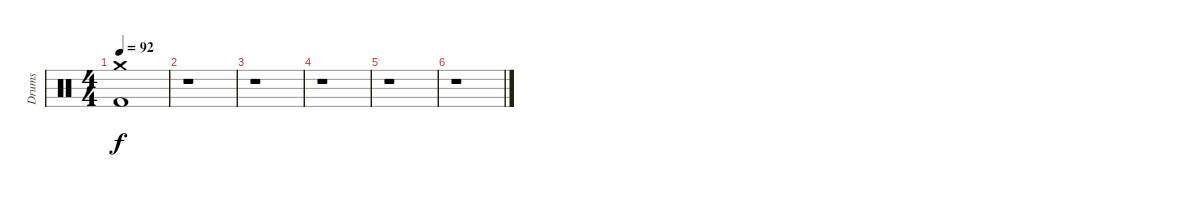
\track ("Drums" "Drums") {instrument percussion}
\staff {score}
\articulation defaults
\ts (4 4)
\tempo 92
\clef neutral
\ks c
("Crash medium (hit)" "Kick (hit) 2").1{dy f} |
r.1 |
r.1 |
r.1 |
r.1 |
r.1
